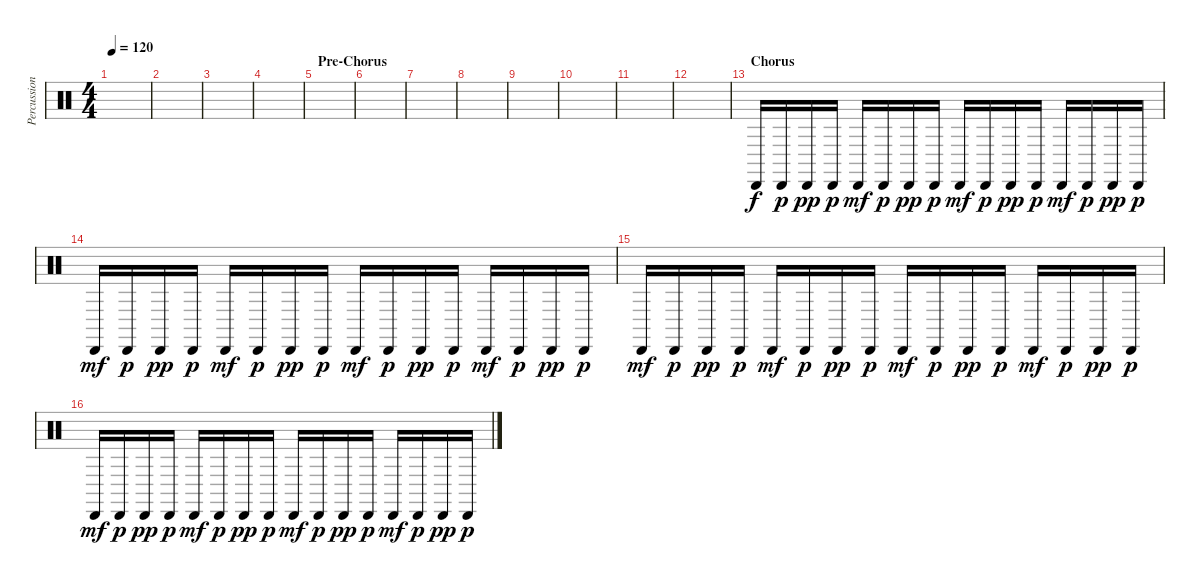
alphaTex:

\track ("Percussion" "Percussion") {instrument percussion}
\staff {score}
\articulation defaults
\ts (4 4)
\tempo 120
\clef neutral
\ks c
|
|
|
|
\section ("" "Pre-Chorus")
|
|
|
|
|
|
|
|
\section ("" "Chorus")
"Cabasa (hit)".16 "Cabasa (hit)".16{dy p} "Cabasa (hit)".16{dy pp} "Cabasa (hit)".16{dy p} "Cabasa (hit)".16{dy mf} "Cabasa (hit)".16{dy p} "Cabasa (hit)".16{dy pp} "Cabasa (hit)".16{dy p} "Cabasa (hit)".16{dy mf} "Cabasa (hit)".16{dy p} "Cabasa (hit)".16{dy pp} "Cabasa (hit)".16{dy p} "Cabasa (hit)".16{dy mf} "Cabasa (hit)".16{dy p} "Cabasa (hit)".16{dy pp} "Cabasa (hit)".16{dy p} |
"Cabasa (hit)".16{dy mf} "Cabasa (hit)".16{dy p} "Cabasa (hit)".16{dy pp} "Cabasa (hit)".16{dy p} "Cabasa (hit)".16{dy mf} "Cabasa (hit)".16{dy p} "Cabasa (hit)".16{dy pp} "Cabasa (hit)".16{dy p} "Cabasa (hit)".16{dy mf} "Cabasa (hit)".16{dy p} "Cabasa (hit)".16{dy pp} "Cabasa (hit)".16{dy p} "Cabasa (hit)".16{dy mf} "Cabasa (hit)".16{dy p} "Cabasa (hit)".16{dy pp} "Cabasa (hit)".16{dy p} |
"Cabasa (hit)".16{dy mf} "Cabasa (hit)".16{dy p} "Cabasa (hit)".16{dy pp} "Cabasa (hit)".16{dy p} "Cabasa (hit)".16{dy mf} "Cabasa (hit)".16{dy p} "Cabasa (hit)".16{dy pp} "Cabasa (hit)".16{dy p} "Cabasa (hit)".16{dy mf} "Cabasa (hit)".16{dy p} "Cabasa (hit)".16{dy pp} "Cabasa (hit)".16{dy p} "Cabasa (hit)".16{dy mf} "Cabasa (hit)".16{dy p} "Cabasa (hit)".16{dy pp} "Cabasa (hit)".16{dy p} |
"Cabasa (hit)".16{dy mf} "Cabasa (hit)".16{dy p} "Cabasa (hit)".16{dy pp} "Cabasa (hit)".16{dy p} "Cabasa (hit)".16{dy mf} "Cabasa (hit)".16{dy p} "Cabasa (hit)".16{dy pp} "Cabasa (hit)".16{dy p} "Cabasa (hit)".16{dy mf} "Cabasa (hit)".16{dy p} "Cabasa (hit)".16{dy pp} "Cabasa (hit)".16{dy p} "Cabasa (hit)".16{dy mf} "Cabasa (hit)".16{dy p} "Cabasa (hit)".16{dy pp} "Cabasa (hit)".16{dy p}
